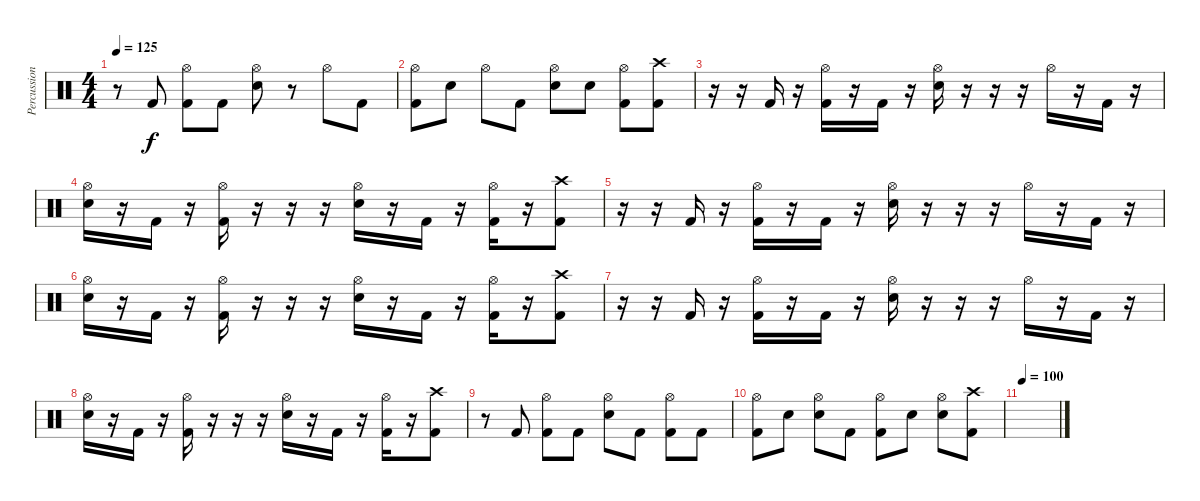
\track ("Percussion" "Percussion") {instrument percussion}
\staff {score}
\articulation defaults
\ts (4 4)
\tempo 125
\clef neutral
\ks c
r.8{dy f} "Kick (hit) 2".8 ("Hi-Hat (open)" "Kick (hit) 2").8 "Kick (hit) 2".8 ("Hi-Hat (open)" "Electric Snare (hit)").8 r.8 "Hi-Hat (open)".8 "Kick (hit) 2".8 |
("Hi-Hat (open)" "Kick (hit) 2").8 "Electric Snare (hit)".8 "Hi-Hat (open)".8 "Kick (hit) 2".8 ("Hi-Hat (open)" "Electric Snare (hit)").8 "Electric Snare (hit)".8 ("Hi-Hat (open)" "Kick (hit) 2").8 ("Crash high (hit)" "Kick (hit) 2").8 |
r.16 r.16 "Kick (hit) 2".16 r.16 ("Hi-Hat (open)" "Kick (hit) 2").16 r.16 "Kick (hit) 2".16 r.16 ("Hi-Hat (open)" "Electric Snare (hit)").16 r.16 r.16 r.16 "Hi-Hat (open)".16 r.16 "Kick (hit) 2".16 r.16 |
("Hi-Hat (open)" "Electric Snare (hit)").16 r.16 "Kick (hit) 2".16 r.16 ("Hi-Hat (open)" "Kick (hit) 2").16 r.16 r.16 r.16 ("Hi-Hat (open)" "Electric Snare (hit)").16 r.16 "Kick (hit) 2".16 r.16 ("Hi-Hat (open)" "Kick (hit) 2").16 r.16 ("Crash high (hit)" "Kick (hit) 2").8 |
r.16 r.16 "Kick (hit) 2".16 r.16 ("Hi-Hat (open)" "Kick (hit) 2").16 r.16 "Kick (hit) 2".16 r.16 ("Hi-Hat (open)" "Electric Snare (hit)").16 r.16 r.16 r.16 "Hi-Hat (open)".16 r.16 "Kick (hit) 2".16 r.16 |
("Hi-Hat (open)" "Electric Snare (hit)").16 r.16 "Kick (hit) 2".16 r.16 ("Hi-Hat (open)" "Kick (hit) 2").16 r.16 r.16 r.16 ("Hi-Hat (open)" "Electric Snare (hit)").16 r.16 "Kick (hit) 2".16 r.16 ("Hi-Hat (open)" "Kick (hit) 2").16 r.16 ("Crash high (hit)" "Kick (hit) 2").8 |
r.16 r.16 "Kick (hit) 2".16 r.16 ("Hi-Hat (open)" "Kick (hit) 2").16 r.16 "Kick (hit) 2".16 r.16 ("Hi-Hat (open)" "Electric Snare (hit)").16 r.16 r.16 r.16 "Hi-Hat (open)".16 r.16 "Kick (hit) 2".16 r.16 |
("Hi-Hat (open)" "Electric Snare (hit)").16 r.16 "Kick (hit) 2".16 r.16 ("Hi-Hat (open)" "Kick (hit) 2").16 r.16 r.16 r.16 ("Hi-Hat (open)" "Electric Snare (hit)").16 r.16 "Kick (hit) 2".16 r.16 ("Hi-Hat (open)" "Kick (hit) 2").16 r.16 ("Crash high (hit)" "Kick (hit) 2").8 |
r.8 "Kick (hit) 2".8 ("Hi-Hat (open)" "Kick (hit) 2").8 "Kick (hit) 2".8 ("Hi-Hat (open)" "Electric Snare (hit)").8 "Kick (hit) 2".8 ("Hi-Hat (open)" "Kick (hit) 2").8 "Kick (hit) 2".8 |
("Hi-Hat (open)" "Kick (hit) 2").8 "Electric Snare (hit)".8 ("Hi-Hat (open)" "Electric Snare (hit)").8 "Kick (hit) 2".8 ("Hi-Hat (open)" "Kick (hit) 2").8 "Electric Snare (hit)".8 ("Hi-Hat (open)" "Electric Snare (hit)").8 ("Crash high (hit)" "Kick (hit) 2").8 |
\tempo 100
